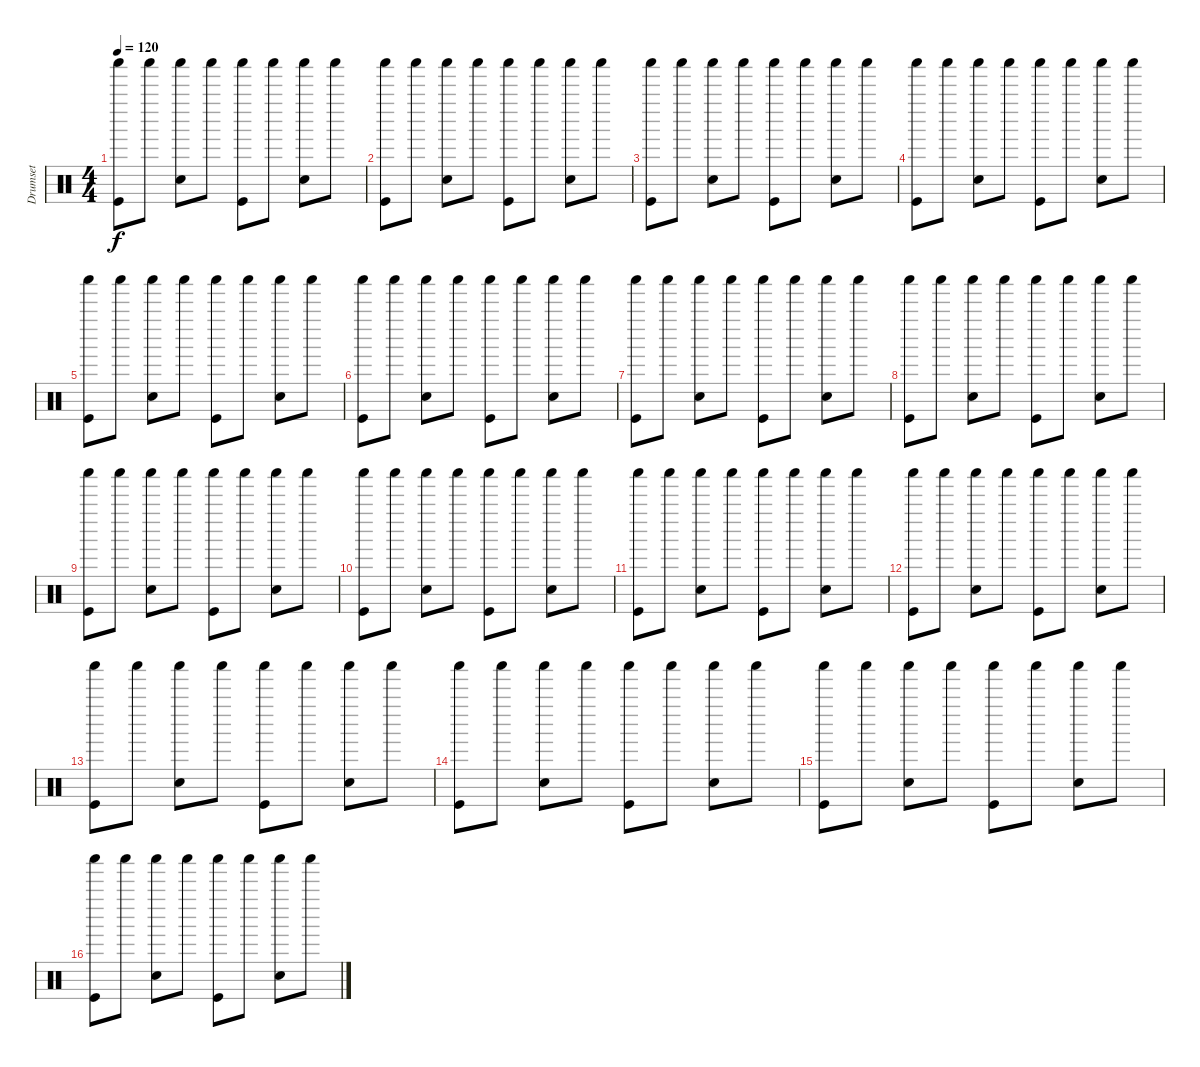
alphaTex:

\track ("Drumset" "Drumset") {instrument percussion}
\staff {score}
\articulation defaults
\ts (4 4)
\tempo 120
\clef neutral
\ks c
("Shaker (hit)" "Kick (hit)").8{dy f} "Shaker (hit)".8 ("Shaker (hit)" "Snare (hit) 2").8 "Shaker (hit)".8 ("Shaker (hit)" "Kick (hit)").8 "Shaker (hit)".8 ("Shaker (hit)" "Snare (hit) 2").8 "Shaker (hit)".8 |
("Shaker (hit)" "Kick (hit)").8 "Shaker (hit)".8 ("Shaker (hit)" "Snare (hit) 2").8 "Shaker (hit)".8 ("Shaker (hit)" "Kick (hit)").8 "Shaker (hit)".8 ("Shaker (hit)" "Snare (hit) 2").8 "Shaker (hit)".8 |
("Shaker (hit)" "Kick (hit)").8 "Shaker (hit)".8 ("Shaker (hit)" "Snare (hit) 2").8 "Shaker (hit)".8 ("Shaker (hit)" "Kick (hit)").8 "Shaker (hit)".8 ("Shaker (hit)" "Snare (hit) 2").8 "Shaker (hit)".8 |
("Shaker (hit)" "Kick (hit)").8 "Shaker (hit)".8 ("Shaker (hit)" "Snare (hit) 2").8 "Shaker (hit)".8 ("Shaker (hit)" "Kick (hit)").8 "Shaker (hit)".8 ("Shaker (hit)" "Snare (hit) 2").8 "Shaker (hit)".8 |
("Shaker (hit)" "Kick (hit)").8 "Shaker (hit)".8 ("Shaker (hit)" "Snare (hit) 2").8 "Shaker (hit)".8 ("Shaker (hit)" "Kick (hit)").8 "Shaker (hit)".8 ("Shaker (hit)" "Snare (hit) 2").8 "Shaker (hit)".8 |
("Shaker (hit)" "Kick (hit)").8 "Shaker (hit)".8 ("Shaker (hit)" "Snare (hit) 2").8 "Shaker (hit)".8 ("Shaker (hit)" "Kick (hit)").8 "Shaker (hit)".8 ("Shaker (hit)" "Snare (hit) 2").8 "Shaker (hit)".8 |
("Shaker (hit)" "Kick (hit)").8 "Shaker (hit)".8 ("Shaker (hit)" "Snare (hit) 2").8 "Shaker (hit)".8 ("Shaker (hit)" "Kick (hit)").8 "Shaker (hit)".8 ("Shaker (hit)" "Snare (hit) 2").8 "Shaker (hit)".8 |
("Shaker (hit)" "Kick (hit)").8 "Shaker (hit)".8 ("Shaker (hit)" "Snare (hit) 2").8 "Shaker (hit)".8 ("Shaker (hit)" "Kick (hit)").8 "Shaker (hit)".8 ("Shaker (hit)" "Snare (hit) 2").8 "Shaker (hit)".8 |
("Shaker (hit)" "Kick (hit)").8 "Shaker (hit)".8 ("Shaker (hit)" "Snare (hit) 2").8 "Shaker (hit)".8 ("Shaker (hit)" "Kick (hit)").8 "Shaker (hit)".8 ("Shaker (hit)" "Snare (hit) 2").8 "Shaker (hit)".8 |
("Shaker (hit)" "Kick (hit)").8 "Shaker (hit)".8 ("Shaker (hit)" "Snare (hit) 2").8 "Shaker (hit)".8 ("Shaker (hit)" "Kick (hit)").8 "Shaker (hit)".8 ("Shaker (hit)" "Snare (hit) 2").8 "Shaker (hit)".8 |
("Shaker (hit)" "Kick (hit)").8 "Shaker (hit)".8 ("Shaker (hit)" "Snare (hit) 2").8 "Shaker (hit)".8 ("Shaker (hit)" "Kick (hit)").8 "Shaker (hit)".8 ("Shaker (hit)" "Snare (hit) 2").8 "Shaker (hit)".8 |
("Shaker (hit)" "Kick (hit)").8 "Shaker (hit)".8 ("Shaker (hit)" "Snare (hit) 2").8 "Shaker (hit)".8 ("Shaker (hit)" "Kick (hit)").8 "Shaker (hit)".8 ("Shaker (hit)" "Snare (hit) 2").8 "Shaker (hit)".8 |
("Shaker (hit)" "Kick (hit)").8 "Shaker (hit)".8 ("Shaker (hit)" "Snare (hit) 2").8 "Shaker (hit)".8 ("Shaker (hit)" "Kick (hit)").8 "Shaker (hit)".8 ("Shaker (hit)" "Snare (hit) 2").8 "Shaker (hit)".8 |
("Shaker (hit)" "Kick (hit)").8 "Shaker (hit)".8 ("Shaker (hit)" "Snare (hit) 2").8 "Shaker (hit)".8 ("Shaker (hit)" "Kick (hit)").8 "Shaker (hit)".8 ("Shaker (hit)" "Snare (hit) 2").8 "Shaker (hit)".8 |
("Shaker (hit)" "Kick (hit)").8 "Shaker (hit)".8 ("Shaker (hit)" "Snare (hit) 2").8 "Shaker (hit)".8 ("Shaker (hit)" "Kick (hit)").8 "Shaker (hit)".8 ("Shaker (hit)" "Snare (hit) 2").8 "Shaker (hit)".8 |
("Shaker (hit)" "Kick (hit)").8 "Shaker (hit)".8 ("Shaker (hit)" "Snare (hit) 2").8 "Shaker (hit)".8 ("Shaker (hit)" "Kick (hit)").8 "Shaker (hit)".8 ("Shaker (hit)" "Snare (hit) 2").8 "Shaker (hit)".8
